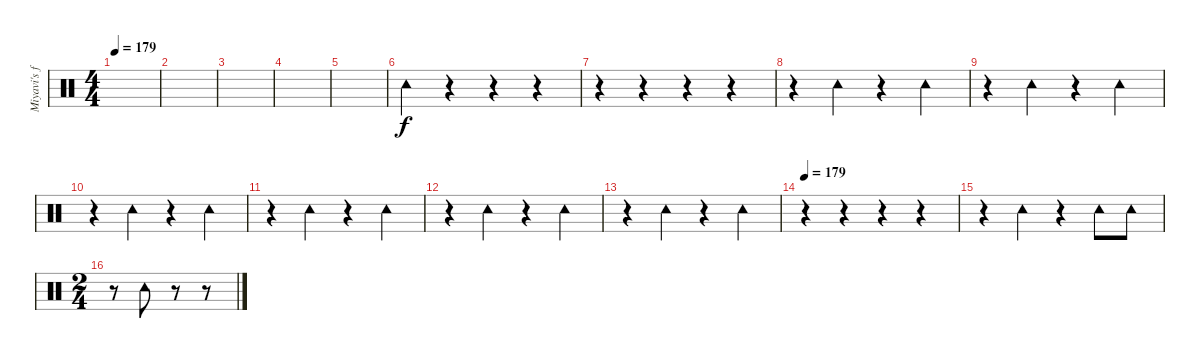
\track ("Miyavi's foot" "Miyavi's f") {instrument percussion}
\staff {score}
\articulation defaults
\ts (4 4)
\tempo 179
\clef neutral
\ks c
|
|
|
|
|
"Tambourine (hit)".4 r.4 r.4 r.4 |
r.4 r.4 r.4 r.4 |
r.4 "Tambourine (hit)".4 r.4 "Tambourine (hit)".4 |
r.4 "Tambourine (hit)".4 r.4 "Tambourine (hit)".4 |
r.4 "Tambourine (hit)".4 r.4 "Tambourine (hit)".4 |
r.4 "Tambourine (hit)".4 r.4 "Tambourine (hit)".4 |
r.4 "Tambourine (hit)".4 r.4 "Tambourine (hit)".4 |
r.4 "Tambourine (hit)".4 r.4 "Tambourine (hit)".4 |
\tempo 179
r.4 r.4 r.4 r.4 |
r.4 "Tambourine (hit)".4 r.4 "Tambourine (hit)".8 "Tambourine (hit)".8 |
\ts (2 4)
r.8 "Tambourine (hit)".8 r.8 r.8
